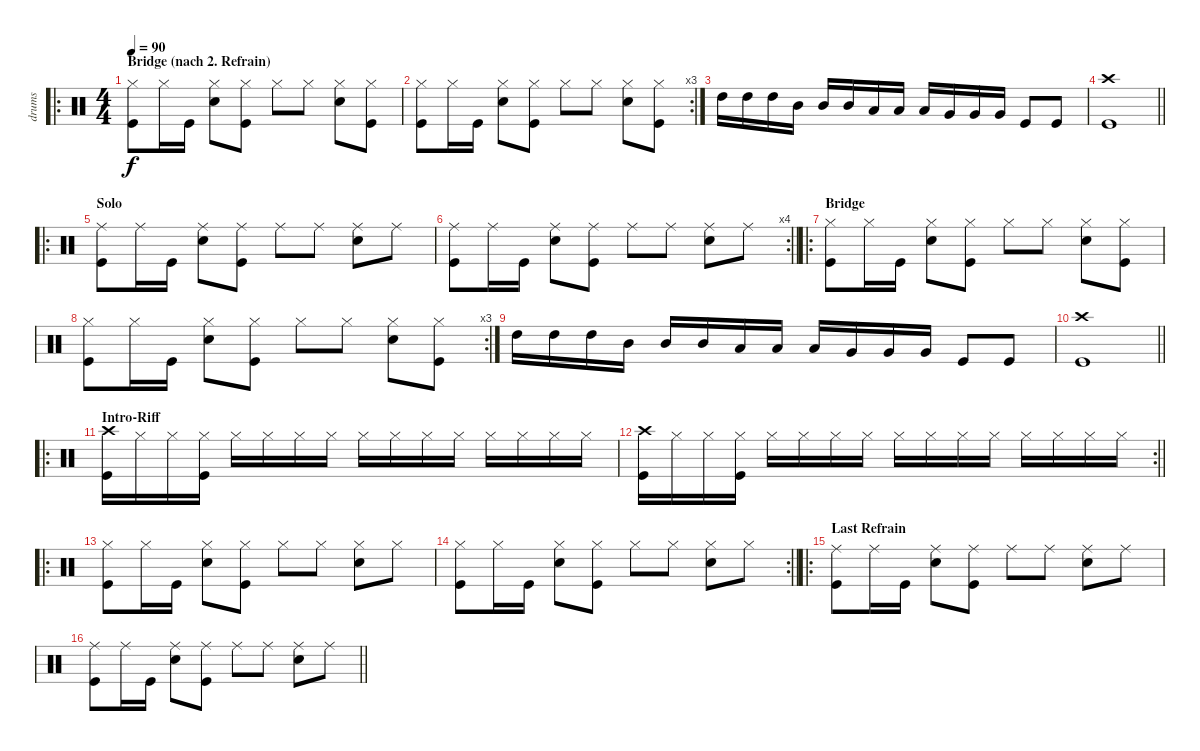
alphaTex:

\track ("drums" "drums") {instrument percussion}
\staff {score}
\articulation defaults
\ro
\ts (4 4)
\section ("" "Bridge (nach 2. Refrain)")
\tempo 90
\clef neutral
\ks c
("Hi-Hat (closed)" "Kick (hit)").8{dy f} "Hi-Hat (closed)".16 "Kick (hit)".16 ("Hi-Hat (closed)" "Snare (hit) 2").8 ("Hi-Hat (closed)" "Kick (hit)").8 "Hi-Hat (closed)".8 "Hi-Hat (closed)".8 ("Hi-Hat (closed)" "Snare (hit) 2").8 ("Hi-Hat (closed)" "Kick (hit)").8 |
\rc 3
("Hi-Hat (closed)" "Kick (hit)").8 "Hi-Hat (closed)".16 "Kick (hit)".16 ("Hi-Hat (closed)" "Snare (hit) 2").8 ("Hi-Hat (closed)" "Kick (hit)").8 "Hi-Hat (closed)".8 "Hi-Hat (closed)".8 ("Hi-Hat (closed)" "Snare (hit) 2").8 ("Hi-Hat (closed)" "Kick (hit)").8 |
"High Tom (hit)".16 "High Tom (hit)".16 "High Tom (hit)".16 "Mid Tom (hit)".16 "Mid Tom (hit)".16 "Mid Tom (hit)".16 "Low Tom (hit)".16 "Low Tom (hit)".16 "Low Tom (hit)".16 "Very Low Tom (hit)".16 "Very Low Tom (hit)".16 "Very Low Tom (hit)".16 "Kick (hit)".8 "Kick (hit)".8 |
\barLineRight lightlight
("Kick (hit)" "Crash high (hit)").1 |
\ro
\section ("" "Solo")
("Ride (middle)" "Kick (hit)").8 "Ride (middle)".16 "Kick (hit)".16 ("Ride (middle)" "Snare (hit) 2").8 ("Ride (middle)" "Kick (hit)").8 "Ride (middle)".8 "Ride (middle)".8 ("Ride (middle)" "Snare (hit) 2").8 "Ride (middle)".8 |
\rc 4
\barLineRight lightlight
("Ride (middle)" "Kick (hit)").8 "Ride (middle)".16 "Kick (hit)".16 ("Ride (middle)" "Snare (hit) 2").8 ("Ride (middle)" "Kick (hit)").8 "Ride (middle)".8 "Ride (middle)".8 ("Ride (middle)" "Snare (hit) 2").8 "Ride (middle)".8 |
\ro
\section ("" "Bridge")
("Hi-Hat (closed)" "Kick (hit)").8 "Hi-Hat (closed)".16 "Kick (hit)".16 ("Hi-Hat (closed)" "Snare (hit) 2").8 ("Hi-Hat (closed)" "Kick (hit)").8 "Hi-Hat (closed)".8 "Hi-Hat (closed)".8 ("Hi-Hat (closed)" "Snare (hit) 2").8 ("Hi-Hat (closed)" "Kick (hit)").8 |
\rc 3
("Hi-Hat (closed)" "Kick (hit)").8 "Hi-Hat (closed)".16 "Kick (hit)".16 ("Hi-Hat (closed)" "Snare (hit) 2").8 ("Hi-Hat (closed)" "Kick (hit)").8 "Hi-Hat (closed)".8 "Hi-Hat (closed)".8 ("Hi-Hat (closed)" "Snare (hit) 2").8 ("Hi-Hat (closed)" "Kick (hit)").8 |
"High Tom (hit)".16 "High Tom (hit)".16 "High Tom (hit)".16 "Mid Tom (hit)".16 "Mid Tom (hit)".16 "Mid Tom (hit)".16 "Low Tom (hit)".16 "Low Tom (hit)".16 "Low Tom (hit)".16 "Very Low Tom (hit)".16 "Very Low Tom (hit)".16 "Very Low Tom (hit)".16 "Kick (hit)".8 "Kick (hit)".8 |
\barLineRight lightlight
("Kick (hit)" "Crash high (hit)").1 |
\ro
\section ("" "Intro-Riff")
("Kick (hit)" "Crash high (hit)").16 "Hi-Hat (closed)".16 "Hi-Hat (closed)".16 ("Hi-Hat (closed)" "Kick (hit)").16 "Hi-Hat (closed)".16 "Hi-Hat (closed)".16 "Hi-Hat (closed)".16 "Hi-Hat (closed)".16 "Hi-Hat (closed)".16 "Hi-Hat (closed)".16 "Hi-Hat (closed)".16 "Hi-Hat (closed)".16 "Hi-Hat (closed)".16 "Hi-Hat (closed)".16 "Hi-Hat (closed)".16 "Hi-Hat (closed)".16 |
\rc 2
\barLineRight lightlight
("Kick (hit)" "Crash high (hit)").16 "Hi-Hat (closed)".16 "Hi-Hat (closed)".16 ("Hi-Hat (closed)" "Kick (hit)").16 "Hi-Hat (closed)".16 "Hi-Hat (closed)".16 "Hi-Hat (closed)".16 "Hi-Hat (closed)".16 "Hi-Hat (closed)".16 "Hi-Hat (closed)".16 "Hi-Hat (closed)".16 "Hi-Hat (closed)".16 "Hi-Hat (closed)".16 "Hi-Hat (closed)".16 "Hi-Hat (closed)".16 "Hi-Hat (closed)".16 |
\ro
("Hi-Hat (closed)" "Kick (hit)").8 "Hi-Hat (closed)".16 "Kick (hit)".16 ("Hi-Hat (closed)" "Snare (hit) 2").8 ("Hi-Hat (closed)" "Kick (hit)").8 "Hi-Hat (closed)".8 "Hi-Hat (closed)".8 ("Hi-Hat (closed)" "Snare (hit) 2").8 "Hi-Hat (closed)".8 |
\rc 2
\barLineRight lightlight
("Hi-Hat (closed)" "Kick (hit)").8 "Hi-Hat (closed)".16 "Kick (hit)".16 ("Hi-Hat (closed)" "Snare (hit) 2").8 ("Hi-Hat (closed)" "Kick (hit)").8 "Hi-Hat (closed)".8 "Hi-Hat (closed)".8 ("Hi-Hat (closed)" "Snare (hit) 2").8 "Hi-Hat (closed)".8 |
\ro
\section ("" "Last Refrain")
("Ride (middle)" "Kick (hit)").8 "Ride (middle)".16 "Kick (hit)".16 ("Ride (middle)" "Snare (hit) 2").8 ("Ride (middle)" "Kick (hit)").8 "Ride (middle)".8 "Ride (middle)".8 ("Ride (middle)" "Snare (hit) 2").8 "Ride (middle)".8 |
\barLineRight lightlight
("Ride (middle)" "Kick (hit)").8 "Ride (middle)".16 "Kick (hit)".16 ("Ride (middle)" "Snare (hit) 2").8 ("Ride (middle)" "Kick (hit)").8 "Ride (middle)".8 "Ride (middle)".8 ("Ride (middle)" "Snare (hit) 2").8 "Ride (middle)".8
